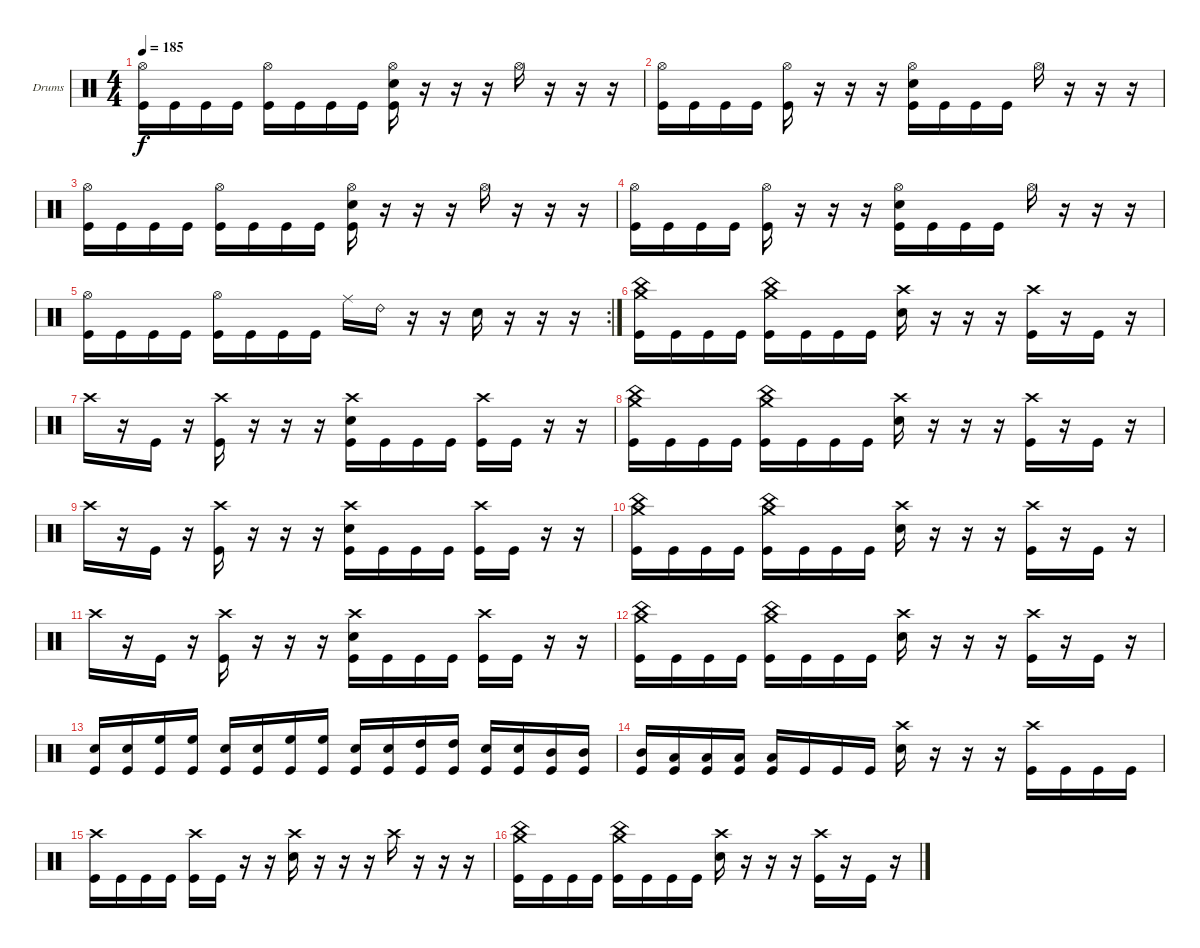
\bracketExtendMode groupsimilarinstruments
\firstSystemTrackNameOrientation horizontal
\otherSystemsTrackNameOrientation horizontal
\track ("Drumkit" "Drums") {instrument percussion}
\staff {score}
\articulation defaults
\ts (4 4)
\tempo 185
\clef neutral
\ks c
("Hi-Hat (open)" "Kick (hit)").16{dy f} "Kick (hit)".16 "Kick (hit)".16 "Kick (hit)".16 ("Hi-Hat (open)" "Kick (hit)").16 "Kick (hit)".16 "Kick (hit)".16 "Kick (hit)".16 ("Hi-Hat (open)" "Snare (hit) 2" "Kick (hit)").16 r.16 r.16 r.16 "Hi-Hat (open)".16 r.16 r.16 r.16 |
("Hi-Hat (open)" "Kick (hit)").16 "Kick (hit)".16 "Kick (hit)".16 "Kick (hit)".16 ("Hi-Hat (open)" "Kick (hit)").16 r.16 r.16 r.16 ("Hi-Hat (open)" "Snare (hit) 2" "Kick (hit)").16 "Kick (hit)".16 "Kick (hit)".16 "Kick (hit)".16 "Hi-Hat (open)".16 r.16 r.16 r.16 |
("Hi-Hat (open)" "Kick (hit)").16 "Kick (hit)".16 "Kick (hit)".16 "Kick (hit)".16 ("Hi-Hat (open)" "Kick (hit)").16 "Kick (hit)".16 "Kick (hit)".16 "Kick (hit)".16 ("Hi-Hat (open)" "Snare (hit) 2" "Kick (hit)").16 r.16 r.16 r.16 "Hi-Hat (open)".16 r.16 r.16 r.16 |
("Hi-Hat (open)" "Kick (hit)").16 "Kick (hit)".16 "Kick (hit)".16 "Kick (hit)".16 ("Hi-Hat (open)" "Kick (hit)").16 r.16 r.16 r.16 ("Hi-Hat (open)" "Snare (hit) 2" "Kick (hit)").16 "Kick (hit)".16 "Kick (hit)".16 "Kick (hit)".16 "Hi-Hat (open)".16 r.16 r.16 r.16 |
\rc 2
("Hi-Hat (open)" "Kick (hit)").16 "Kick (hit)".16 "Kick (hit)".16 "Kick (hit)".16 ("Hi-Hat (open)" "Kick (hit)").16 "Kick (hit)".16 "Kick (hit)".16 "Kick (hit)".16 "Ride (middle)".16 "Ride (bell) 2".16 r.16 r.16 "Snare (hit) 2".16 r.16 r.16 r.16 |
("Crash medium (hit)" "China (hit)" "Kick (hit)").16 "Kick (hit)".16 "Kick (hit)".16 "Kick (hit)".16 ("Crash medium (hit)" "China (hit)" "Kick (hit)").16 "Kick (hit)".16 "Kick (hit)".16 "Kick (hit)".16 ("Crash high (hit)" "Snare (hit) 2").16 r.16 r.16 r.16 ("Crash high (hit)" "Kick (hit)").16 r.16 "Kick (hit)".16 r.16 |
"Crash high (hit)".16 r.16 "Kick (hit)".16 r.16 ("Crash high (hit)" "Kick (hit)").16 r.16 r.16 r.16 ("Crash high (hit)" "Snare (hit) 2" "Kick (hit)").16 "Kick (hit)".16 "Kick (hit)".16 "Kick (hit)".16 ("Crash high (hit)" "Kick (hit)").16 "Kick (hit)".16 r.16 r.16 |
("Crash medium (hit)" "China (hit)" "Kick (hit)").16 "Kick (hit)".16 "Kick (hit)".16 "Kick (hit)".16 ("Crash medium (hit)" "China (hit)" "Kick (hit)").16 "Kick (hit)".16 "Kick (hit)".16 "Kick (hit)".16 ("Crash high (hit)" "Snare (hit) 2").16 r.16 r.16 r.16 ("Crash high (hit)" "Kick (hit)").16 r.16 "Kick (hit)".16 r.16 |
"Crash high (hit)".16 r.16 "Kick (hit)".16 r.16 ("Crash high (hit)" "Kick (hit)").16 r.16 r.16 r.16 ("Crash high (hit)" "Snare (hit) 2" "Kick (hit)").16 "Kick (hit)".16 "Kick (hit)".16 "Kick (hit)".16 ("Crash high (hit)" "Kick (hit)").16 "Kick (hit)".16 r.16 r.16 |
("Crash medium (hit)" "China (hit)" "Kick (hit)").16 "Kick (hit)".16 "Kick (hit)".16 "Kick (hit)".16 ("Crash medium (hit)" "China (hit)" "Kick (hit)").16 "Kick (hit)".16 "Kick (hit)".16 "Kick (hit)".16 ("Crash high (hit)" "Snare (hit) 2").16 r.16 r.16 r.16 ("Crash high (hit)" "Kick (hit)").16 r.16 "Kick (hit)".16 r.16 |
"Crash high (hit)".16 r.16 "Kick (hit)".16 r.16 ("Crash high (hit)" "Kick (hit)").16 r.16 r.16 r.16 ("Crash high (hit)" "Snare (hit) 2" "Kick (hit)").16 "Kick (hit)".16 "Kick (hit)".16 "Kick (hit)".16 ("Crash high (hit)" "Kick (hit)").16 "Kick (hit)".16 r.16 r.16 |
("Crash medium (hit)" "China (hit)" "Kick (hit)").16 "Kick (hit)".16 "Kick (hit)".16 "Kick (hit)".16 ("Crash medium (hit)" "China (hit)" "Kick (hit)").16 "Kick (hit)".16 "Kick (hit)".16 "Kick (hit)".16 ("Crash high (hit)" "Snare (hit) 2").16 r.16 r.16 r.16 ("Crash high (hit)" "Kick (hit)").16 r.16 "Kick (hit)".16 r.16 |
("Snare (hit) 2" "Kick (hit)").16 ("Snare (hit) 2" "Kick (hit)").16 ("High Floor Tom (hit)" "Kick (hit)").16 ("High Floor Tom (hit)" "Kick (hit)").16 ("Snare (hit) 2" "Kick (hit)").16 ("Snare (hit) 2" "Kick (hit)").16 ("High Floor Tom (hit)" "Kick (hit)").16 ("High Floor Tom (hit)" "Kick (hit)").16 ("Snare (hit) 2" "Kick (hit)").16 ("Snare (hit) 2" "Kick (hit)").16 ("High Tom (hit)" "Kick (hit)").16 ("High Tom (hit)" "Kick (hit)").16 ("Snare (hit) 2" "Kick (hit)").16 ("Snare (hit) 2" "Kick (hit)").16 ("Mid Tom (hit)" "Kick (hit)").16 ("Mid Tom (hit)" "Kick (hit)").16 |
("Mid Tom (hit)" "Kick (hit)").16 ("Low Tom (hit)" "Kick (hit)").16 ("Low Tom (hit)" "Kick (hit)").16 ("Low Tom (hit)" "Kick (hit)").16 ("Low Tom (hit)" "Kick (hit)").16 "Kick (hit)".16 "Kick (hit)".16 "Kick (hit)".16 ("Crash high (hit)" "Snare (hit) 2").16 r.16 r.16 r.16 ("Crash high (hit)" "Kick (hit)").16 "Kick (hit)".16 "Kick (hit)".16 "Kick (hit)".16 |
("Crash high (hit)" "Kick (hit)").16 "Kick (hit)".16 "Kick (hit)".16 "Kick (hit)".16 ("Crash high (hit)" "Kick (hit)").16 "Kick (hit)".16 r.16 r.16 ("Crash high (hit)" "Snare (hit) 2").16 r.16 r.16 r.16 "Crash high (hit)".16 r.16 r.16 r.16 |
("Crash medium (hit)" "China (hit)" "Kick (hit)").16 "Kick (hit)".16 "Kick (hit)".16 "Kick (hit)".16 ("Crash medium (hit)" "China (hit)" "Kick (hit)").16 "Kick (hit)".16 "Kick (hit)".16 "Kick (hit)".16 ("Crash high (hit)" "Snare (hit) 2").16 r.16 r.16 r.16 ("Crash high (hit)" "Kick (hit)").16 r.16 "Kick (hit)".16 r.16
